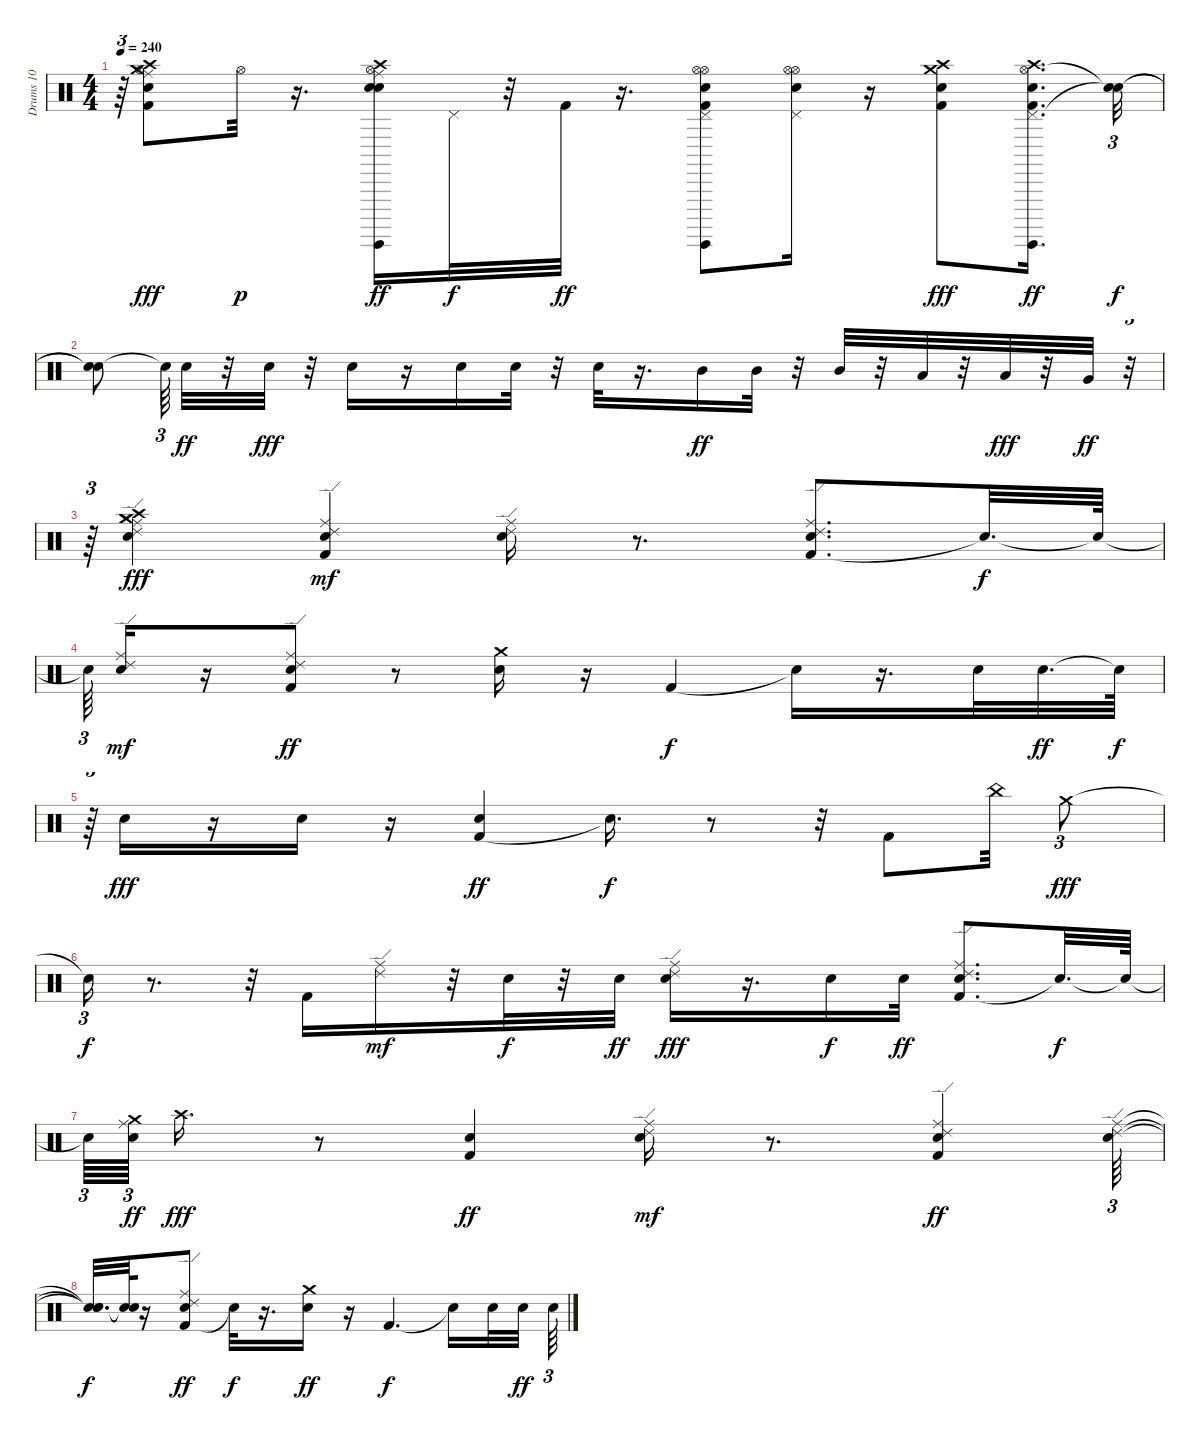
\track ("Drums 10" "Drums 10") {instrument percussion}
\staff {score}
\articulation defaults
\ts (4 4)
\tempo 240
\clef neutral
\ks c
r.64{tu (3 2) dy f} ("Hi-Hat (open)" "Kick (hit) 2" "Electric Snare (hit)" "Ride (middle)" "Crash high (hit)" "Crash medium (hit)").8{dy fff} "Hi-Hat (open)".32{dy p} r.16{d} ("Hi-Hat (open)" "Guiro (hit)" "Snare (hit) 2" "Electric Snare (hit)" "Ride (middle)" "Crash high (hit)").16{dy ff} "Pedal Hi-Hat (hit)".32{dy f} r.32 "Kick (hit) 2".32{dy ff} r.16{d} ("Pedal Hi-Hat (hit)" "Hi-Hat (open)" "Guiro (hit)" "Kick (hit) 2" "Electric Snare (hit)" "Hi-Hat (open)").8 ("Pedal Hi-Hat (hit)" "Hi-Hat (open)" "Electric Snare (hit)" "Hi-Hat (open)").16 r.16 ("Kick (hit) 2" "Snare (hit) 2" "Crash high (hit)" "Crash medium (hit)").8{dy fff} ("Pedal Hi-Hat (hit)" "Hi-Hat (open)" "Guiro (hit)" "Kick (hit) 2" "Crash high (hit)" "Electric Snare (hit)").16{d dy ff} ("Snare (hit)"{t} "Snare (hit)"{t}).32{tu (3 2) dy f} |
("Snare (hit)"{t} "Snare (hit)"{t}).8 "Snare (hit)"{t}.64{tu (3 2) beam splitsecondary} "Electric Snare (hit)".32{dy ff} r.32 "Electric Snare (hit)".32{dy fff} r.32 "Electric Snare (hit)".16 r.16 "Electric Snare (hit)".16 "Electric Snare (hit)".32 r.32 "Electric Snare (hit)".32 r.16{d} "Mid Tom (hit)".16{dy ff} "Mid Tom (hit)".32 r.32 "Mid Tom (hit)".32 r.32 "Low Tom (hit)".32 r.32 "Low Tom (hit)".32{dy fff} r.32 "Very Low Tom (hit)".32{dy ff} r.32{tu (3 2)} |
r.64{tu (3 2)} ("Electric Snare (hit)" "Ride (edge) 2" "Ride (middle)" "Crash medium (hit)" "Crash high (hit)" "Crash medium (hit)").4{dy fff} ("Kick (hit) 2" "Electric Snare (hit)" "Ride (middle)" "Ride (edge) 2").4{dy mf} ("Electric Snare (hit)" "Ride (middle)" "Ride (edge) 2").16 r.8{d} ("Kick (hit) 2" "Electric Snare (hit)" "Ride (middle)" "Ride (edge) 2").8{d} "Snare (hit)"{t}.32{d dy f} "Snare (hit)"{t}.64 |
"Snare (hit)"{t}.64{tu (3 2)} ("Electric Snare (hit)" "Ride (edge) 2" "Ride (middle)").16{dy mf} r.16 ("Kick (hit) 2" "Electric Snare (hit)" "Ride (edge) 2" "Ride (middle)").8{dy ff} r.8 ("Snare (hit) 2" "Crash medium (hit)").16 r.16 "Kick (hit) 2".4{dy f} "Snare (hit)"{t}.16 r.16{d} "Snare (hit) 2".32 "Electric Snare (hit)".32{d dy ff} "Snare (hit)"{t}.64{dy f} |
r.64{tu (3 2)} "Snare (hit) 2".16{dy fff} r.16 "Electric Snare (hit)".16 r.16 ("Kick (hit) 2" "Snare (hit) 2").4{dy ff} "Snare (hit)"{t}.16{d dy f} r.8 r.32 "Kick (hit) 2".8 "China (hit)".32 "Crash medium (hit)".8{tu (3 2) dy fff} |
"Snare (hit)"{t}.16{tu (3 2) dy f} r.8{d} r.32 "Kick (hit) 2".16 ("Ride (middle)" "Ride (edge) 2").16{dy mf} r.32 "Snare (hit) 2".32{dy f} r.32 "Electric Snare (hit)".32{dy ff} ("Snare (hit) 2" "Ride (middle)" "Ride (edge) 2").16{dy fff} r.16{d} "Snare (hit) 2".16{dy f} "Electric Snare (hit)".32{dy ff} ("Kick (hit) 2" "Snare (hit) 2" "Ride (middle)" "Ride (edge) 2").8{d} "Snare (hit)"{t}.32{d dy f} "Snare (hit)"{t}.64 |
"Snare (hit)"{t}.64{tu (3 2)} ("Electric Snare (hit)" "Ride (middle)" "Crash medium (hit)").64{tu (3 2) dy ff beam splitsecondary} "Crash high (hit)".16{d dy fff} r.8 ("Kick (hit) 2" "Electric Snare (hit)").4{dy ff} ("Electric Snare (hit)" "Ride (middle)" "Ride (edge) 2").16{dy mf} r.8{d} ("Electric Snare (hit)" "Kick (hit) 2" "Ride (middle)" "Ride (edge) 2").4{dy ff} ("Electric Snare (hit)" "Ride (middle)" "Ride (edge) 2").64{tu (3 2)} |
("Snare (hit)"{t} "Snare (hit)"{t} "Snare (hit)"{t}).32{d dy f} ("Snare (hit)"{t} "Snare (hit)"{t}).64 r.16 ("Kick (hit) 2" "Ride (middle)" "Ride (edge) 2" "Electric Snare (hit)").8{dy ff} "Snare (hit)"{t}.32{dy f} r.16{d} ("Snare (hit) 2" "Crash medium (hit)").16{dy ff} r.16 "Kick (hit) 2".4{d dy f} "Snare (hit)"{t}.16 "Snare (hit) 2".32 "Electric Snare (hit)".32{dy ff} "Snare (hit) 2".64{tu (3 2)}
